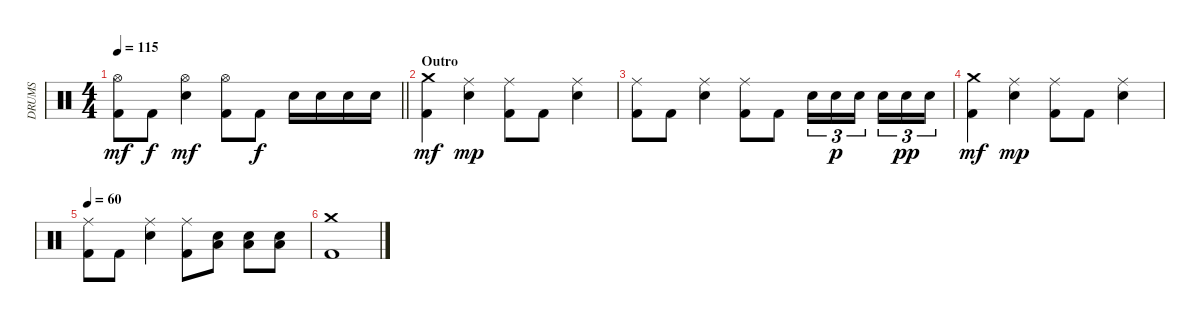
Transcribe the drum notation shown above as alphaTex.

\track ("DRUMS" "DRUMS") {instrument percussion}
\staff {score}
\articulation defaults
\ts (4 4)
\tempo 115
\clef neutral
\barLineRight lightlight
\ks c
("Hi-Hat (open)" "Kick (hit) 2").8{dy mf} "Kick (hit) 2".8{dy f} ("Hi-Hat (open)" "Snare (hit) 2").4{dy mf} ("Hi-Hat (open)" "Kick (hit) 2").8 "Kick (hit) 2".8{dy f} "Electric Snare (hit)".16 "Snare (hit) 2".16 "Electric Snare (hit)".16 "Snare (hit) 2".16 |
\section ("" "Outro")
("Crash medium (hit)" "Kick (hit) 2").4{dy mf} ("Ride (middle)" "Snare (hit) 2").4{dy mp} ("Ride (middle)" "Kick (hit) 2").8 "Kick (hit) 2".8 ("Ride (middle)" "Snare (hit) 2").4 |
("Ride (middle)" "Kick (hit) 2").8 "Kick (hit) 2".8 ("Ride (middle)" "Snare (hit) 2").4 ("Ride (middle)" "Kick (hit) 2").8 "Kick (hit) 2".8 "Electric Snare (hit)".16{tu (3 2)} "Snare (hit) 2".16{tu (3 2) dy p} "Electric Snare (hit)".16{tu (3 2) beam splitsecondary} "Snare (hit) 2".16{tu (3 2)} "Electric Snare (hit)".16{tu (3 2) dy pp} "Snare (hit) 2".16{tu (3 2)} |
("Crash medium (hit)" "Kick (hit) 2").4{dy mf} ("Ride (middle)" "Snare (hit) 2").4{dy mp} ("Ride (middle)" "Kick (hit) 2").8 "Kick (hit) 2".8 ("Ride (middle)" "Snare (hit) 2").4 |
\tempo 60
("Ride (middle)" "Kick (hit) 2").8 "Kick (hit) 2".8 ("Ride (middle)" "Snare (hit) 2").4 ("Ride (middle)" "Kick (hit) 2").8 ("Snare (hit) 2" "Low Floor Tom (hit)").8 ("Snare (hit) 2" "Low Floor Tom (hit)").8 ("Snare (hit) 2" "Low Floor Tom (hit)").8 |
("Crash medium (hit)" "Kick (hit) 2").1{volume 0}
